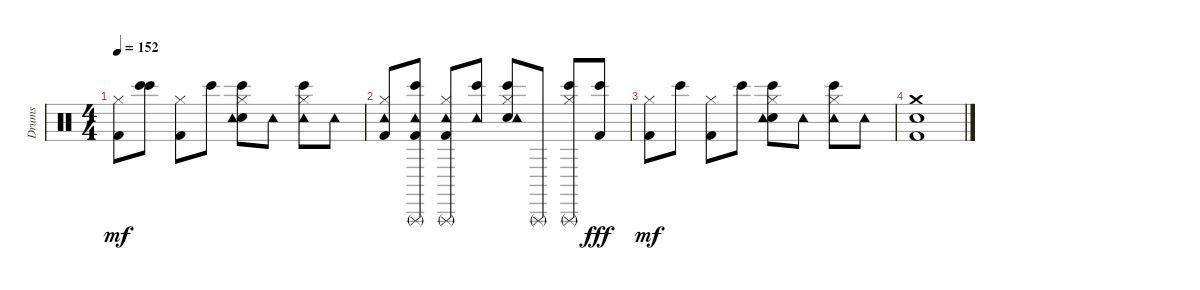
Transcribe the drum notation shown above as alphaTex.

\track ("Drums" "Drums") {instrument percussion}
\staff {score}
\articulation defaults
\ts (4 4)
\tempo 152
\clef neutral
\ks c
("Kick (hit) 2" "Hi-Hat (closed)").8{dy mf} ("Bongo High (hit)" "Bongo High (hit)").8 ("Kick (hit) 2" "Hi-Hat (closed)").8 "Bongo High (hit)".8 ("Bongo High (hit)" "Electric Snare (hit)" "Hi-Hat (closed)" "Tambourine (hit)").8 "Tambourine (hit)".8 ("Tambourine (hit)" "Bongo High (hit)" "Hi-Hat (closed)").8 "Tambourine (hit)".8 |
("Tambourine (hit)" "Kick (hit) 2" "Hi-Hat (closed)").8 ("Tambourine (hit)" "Bongo High (hit)" "Kick (hit) 2" "Triangle (rnute)").8 ("Kick (hit) 2" "Hi-Hat (closed)" "Triangle (rnute)" "Tambourine (hit)").8 ("Tambourine (hit)" "Bongo High (hit)").8 ("Bongo High (hit)" "Electric Snare (hit)" "Hi-Hat (closed)" "Tambourine (hit)").8 "Triangle (rnute)".8 ("Bongo High (hit)" "Hi-Hat (closed)" "Triangle (rnute)").8 ("Bongo High (hit)" "Kick (hit) 2").8{dy fff} |
("Kick (hit) 2" "Hi-Hat (closed)").8{dy mf} "Bongo High (hit)".8 ("Kick (hit) 2" "Hi-Hat (closed)").8 "Bongo High (hit)".8 ("Bongo High (hit)" "Electric Snare (hit)" "Hi-Hat (closed)" "Tambourine (hit)").8 "Tambourine (hit)".8 ("Tambourine (hit)" "Bongo High (hit)" "Hi-Hat (closed)").8 "Tambourine (hit)".8 |
("Snare (hit) 2" "Kick (hit) 2" "Crash medium (hit)").1
